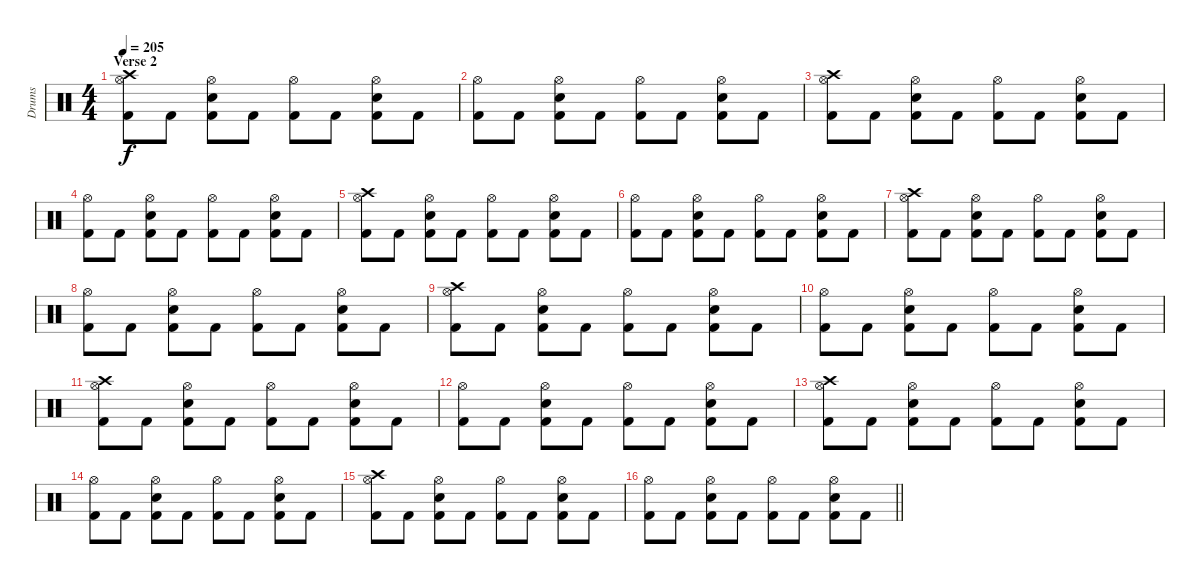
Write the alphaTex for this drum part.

\track ("Drums" "Drums") {instrument percussion}
\staff {score}
\articulation defaults
\ts (4 4)
\section ("" "Verse 2")
\tempo 205
\clef neutral
\ks c
("Crash high (hit)" "Hi-Hat (open)" "Kick (hit) 2").8{dy f} "Kick (hit) 2".8 ("Hi-Hat (open)" "Snare (hit) 2" "Kick (hit) 2").8 "Kick (hit) 2".8 ("Hi-Hat (open)" "Kick (hit) 2").8 "Kick (hit) 2".8 ("Hi-Hat (open)" "Snare (hit) 2" "Kick (hit) 2").8 "Kick (hit) 2".8 |
("Hi-Hat (open)" "Kick (hit) 2").8 "Kick (hit) 2".8 ("Hi-Hat (open)" "Snare (hit) 2" "Kick (hit) 2").8 "Kick (hit) 2".8 ("Hi-Hat (open)" "Kick (hit) 2").8 "Kick (hit) 2".8 ("Hi-Hat (open)" "Snare (hit) 2" "Kick (hit) 2").8 "Kick (hit) 2".8 |
("Crash high (hit)" "Hi-Hat (open)" "Kick (hit) 2").8 "Kick (hit) 2".8 ("Hi-Hat (open)" "Snare (hit) 2" "Kick (hit) 2").8 "Kick (hit) 2".8 ("Hi-Hat (open)" "Kick (hit) 2").8 "Kick (hit) 2".8 ("Hi-Hat (open)" "Snare (hit) 2" "Kick (hit) 2").8 "Kick (hit) 2".8 |
("Hi-Hat (open)" "Kick (hit) 2").8 "Kick (hit) 2".8 ("Hi-Hat (open)" "Snare (hit) 2" "Kick (hit) 2").8 "Kick (hit) 2".8 ("Hi-Hat (open)" "Kick (hit) 2").8 "Kick (hit) 2".8 ("Hi-Hat (open)" "Snare (hit) 2" "Kick (hit) 2").8 "Kick (hit) 2".8 |
("Crash high (hit)" "Hi-Hat (open)" "Kick (hit) 2").8 "Kick (hit) 2".8 ("Hi-Hat (open)" "Snare (hit) 2" "Kick (hit) 2").8 "Kick (hit) 2".8 ("Hi-Hat (open)" "Kick (hit) 2").8 "Kick (hit) 2".8 ("Hi-Hat (open)" "Snare (hit) 2" "Kick (hit) 2").8 "Kick (hit) 2".8 |
("Hi-Hat (open)" "Kick (hit) 2").8 "Kick (hit) 2".8 ("Hi-Hat (open)" "Snare (hit) 2" "Kick (hit) 2").8 "Kick (hit) 2".8 ("Hi-Hat (open)" "Kick (hit) 2").8 "Kick (hit) 2".8 ("Hi-Hat (open)" "Snare (hit) 2" "Kick (hit) 2").8 "Kick (hit) 2".8 |
("Crash high (hit)" "Hi-Hat (open)" "Kick (hit) 2").8 "Kick (hit) 2".8 ("Hi-Hat (open)" "Snare (hit) 2" "Kick (hit) 2").8 "Kick (hit) 2".8 ("Hi-Hat (open)" "Kick (hit) 2").8 "Kick (hit) 2".8 ("Hi-Hat (open)" "Snare (hit) 2" "Kick (hit) 2").8 "Kick (hit) 2".8 |
("Hi-Hat (open)" "Kick (hit) 2").8 "Kick (hit) 2".8 ("Hi-Hat (open)" "Snare (hit) 2" "Kick (hit) 2").8 "Kick (hit) 2".8 ("Hi-Hat (open)" "Kick (hit) 2").8 "Kick (hit) 2".8 ("Hi-Hat (open)" "Snare (hit) 2" "Kick (hit) 2").8 "Kick (hit) 2".8 |
("Crash high (hit)" "Hi-Hat (open)" "Kick (hit) 2").8 "Kick (hit) 2".8 ("Hi-Hat (open)" "Snare (hit) 2" "Kick (hit) 2").8 "Kick (hit) 2".8 ("Hi-Hat (open)" "Kick (hit) 2").8 "Kick (hit) 2".8 ("Hi-Hat (open)" "Snare (hit) 2" "Kick (hit) 2").8 "Kick (hit) 2".8 |
("Hi-Hat (open)" "Kick (hit) 2").8 "Kick (hit) 2".8 ("Hi-Hat (open)" "Snare (hit) 2" "Kick (hit) 2").8 "Kick (hit) 2".8 ("Hi-Hat (open)" "Kick (hit) 2").8 "Kick (hit) 2".8 ("Hi-Hat (open)" "Snare (hit) 2" "Kick (hit) 2").8 "Kick (hit) 2".8 |
("Crash high (hit)" "Hi-Hat (open)" "Kick (hit) 2").8 "Kick (hit) 2".8 ("Hi-Hat (open)" "Snare (hit) 2" "Kick (hit) 2").8 "Kick (hit) 2".8 ("Hi-Hat (open)" "Kick (hit) 2").8 "Kick (hit) 2".8 ("Hi-Hat (open)" "Snare (hit) 2" "Kick (hit) 2").8 "Kick (hit) 2".8 |
("Hi-Hat (open)" "Kick (hit) 2").8 "Kick (hit) 2".8 ("Hi-Hat (open)" "Snare (hit) 2" "Kick (hit) 2").8 "Kick (hit) 2".8 ("Hi-Hat (open)" "Kick (hit) 2").8 "Kick (hit) 2".8 ("Hi-Hat (open)" "Snare (hit) 2" "Kick (hit) 2").8 "Kick (hit) 2".8 |
("Crash high (hit)" "Hi-Hat (open)" "Kick (hit) 2").8 "Kick (hit) 2".8 ("Hi-Hat (open)" "Snare (hit) 2" "Kick (hit) 2").8 "Kick (hit) 2".8 ("Hi-Hat (open)" "Kick (hit) 2").8 "Kick (hit) 2".8 ("Hi-Hat (open)" "Snare (hit) 2" "Kick (hit) 2").8 "Kick (hit) 2".8 |
("Hi-Hat (open)" "Kick (hit) 2").8 "Kick (hit) 2".8 ("Hi-Hat (open)" "Snare (hit) 2" "Kick (hit) 2").8 "Kick (hit) 2".8 ("Hi-Hat (open)" "Kick (hit) 2").8 "Kick (hit) 2".8 ("Hi-Hat (open)" "Snare (hit) 2" "Kick (hit) 2").8 "Kick (hit) 2".8 |
("Crash high (hit)" "Hi-Hat (open)" "Kick (hit) 2").8 "Kick (hit) 2".8 ("Hi-Hat (open)" "Snare (hit) 2" "Kick (hit) 2").8 "Kick (hit) 2".8 ("Hi-Hat (open)" "Kick (hit) 2").8 "Kick (hit) 2".8 ("Hi-Hat (open)" "Snare (hit) 2" "Kick (hit) 2").8 "Kick (hit) 2".8 |
\barLineRight lightlight
("Hi-Hat (open)" "Kick (hit) 2").8 "Kick (hit) 2".8 ("Hi-Hat (open)" "Snare (hit) 2" "Kick (hit) 2").8 "Kick (hit) 2".8 ("Hi-Hat (open)" "Kick (hit) 2").8 "Kick (hit) 2".8 ("Hi-Hat (open)" "Snare (hit) 2" "Kick (hit) 2").8 "Kick (hit) 2".8
